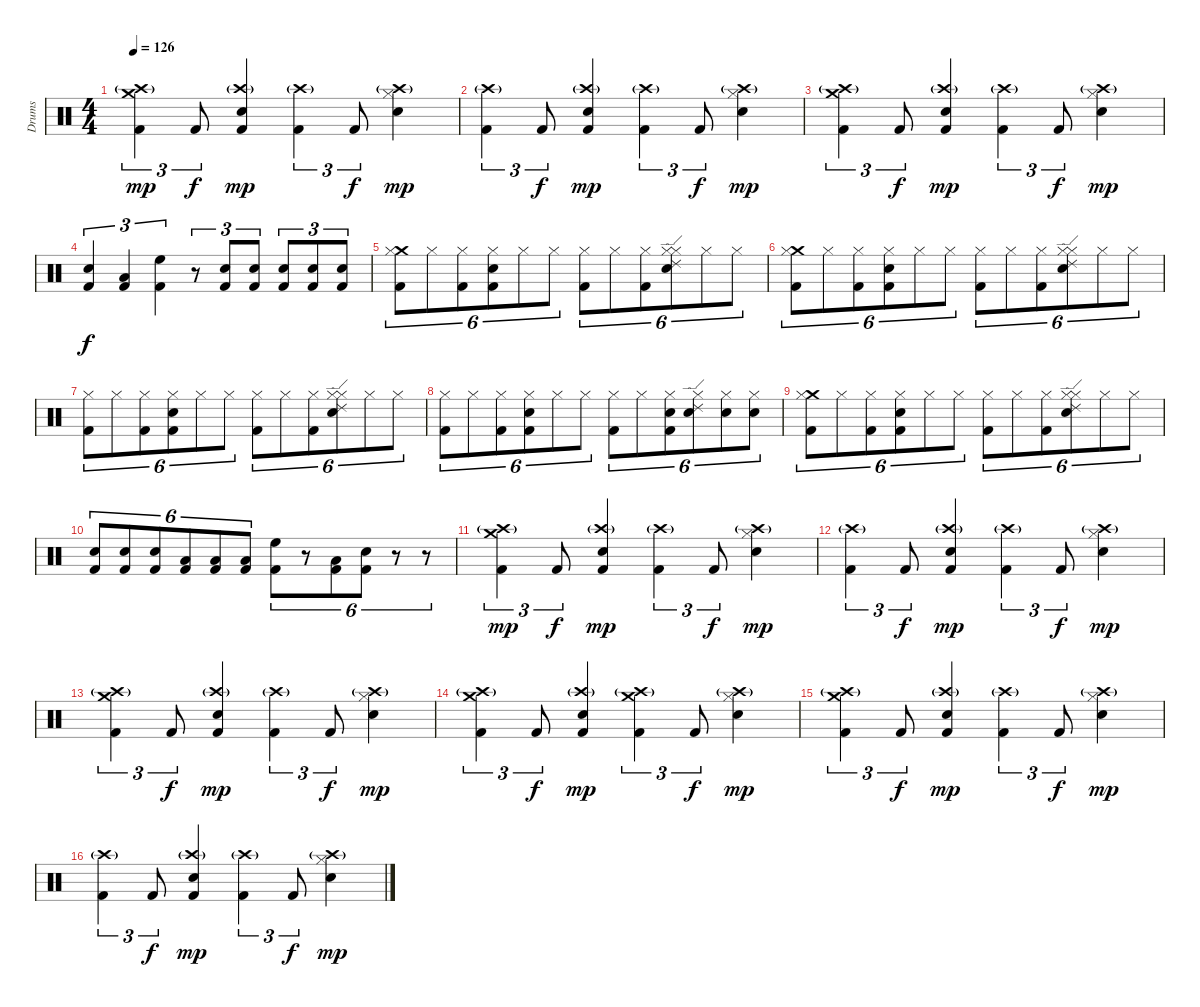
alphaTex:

\track ("Drums" "Drums") {instrument percussion}
\staff {score}
\articulation defaults
\ts (4 4)
\tempo 126
\clef neutral
\ks c
("Kick (hit) 2" "Crash medium (hit)" "Crash high (hit)"{g}).4{tu (3 2) dy mp volume 16} "Kick (hit) 2".8{tu (3 2) dy f} ("Kick (hit) 2" "Snare (hit) 2" "Crash high (hit)"{g}).4{dy mp} ("Kick (hit) 2" "Crash high (hit)"{g}).4{tu (3 2)} "Kick (hit) 2".8{tu (3 2) dy f} ("Hi-Hat (closed)" "Snare (hit) 2" "Crash high (hit)"{g}).4{dy mp} |
("Kick (hit) 2" "Crash high (hit)"{g}).4{tu (3 2)} "Kick (hit) 2".8{tu (3 2) dy f} ("Kick (hit) 2" "Snare (hit) 2" "Crash high (hit)"{g}).4{dy mp} ("Kick (hit) 2" "Crash high (hit)"{g}).4{tu (3 2)} "Kick (hit) 2".8{tu (3 2) dy f} ("Hi-Hat (closed)" "Snare (hit) 2" "Crash high (hit)"{g}).4{dy mp} |
("Kick (hit) 2" "Crash medium (hit)" "Crash high (hit)"{g}).4{tu (3 2)} "Kick (hit) 2".8{tu (3 2) dy f} ("Kick (hit) 2" "Snare (hit) 2" "Crash high (hit)"{g}).4{dy mp} ("Kick (hit) 2" "Crash high (hit)"{g}).4{tu (3 2)} "Kick (hit) 2".8{tu (3 2) dy f} ("Hi-Hat (closed)" "Snare (hit) 2" "Crash high (hit)"{g}).4{dy mp} |
("Kick (hit) 2" "Snare (hit) 2").4{tu (3 2) dy f} ("Kick (hit) 2" "Low Tom (hit)").4{tu (3 2)} ("Kick (hit) 2" "High Floor Tom (hit)").4{tu (3 2)} r.8{tu (3 2)} ("Kick (hit) 2" "Snare (hit) 2").8{tu (3 2)} ("Kick (hit) 2" "Snare (hit) 2").8{tu (3 2)} ("Kick (hit) 2" "Snare (hit) 2").8{tu (3 2)} ("Kick (hit) 2" "Snare (hit) 2").8{tu (3 2)} ("Kick (hit) 2" "Snare (hit) 2").8{tu (3 2)} |
("Kick (hit) 2" "Crash medium (hit)" "Hi-Hat (closed)").8{tu (6 4)} "Hi-Hat (closed)".8{tu (6 4)} ("Kick (hit) 2" "Hi-Hat (closed)").8{tu (6 4)} ("Kick (hit) 2" "Snare (hit) 2" "Hi-Hat (closed)").8{tu (6 4)} "Hi-Hat (closed)".8{tu (6 4)} "Hi-Hat (closed)".8{tu (6 4)} ("Kick (hit) 2" "Hi-Hat (closed)").8{tu (6 4)} "Hi-Hat (closed)".8{tu (6 4)} ("Kick (hit) 2" "Hi-Hat (closed)").8{tu (6 4)} ("Hi-Hat (closed)" "Snare (hit) 2" "Hi-Hat (closed)" "Ride (edge) 2").8{tu (6 4)} "Hi-Hat (closed)".8{tu (6 4)} "Hi-Hat (closed)".8{tu (6 4)} |
("Kick (hit) 2" "Crash medium (hit)" "Hi-Hat (closed)").8{tu (6 4)} "Hi-Hat (closed)".8{tu (6 4)} ("Kick (hit) 2" "Hi-Hat (closed)").8{tu (6 4)} ("Kick (hit) 2" "Snare (hit) 2" "Hi-Hat (closed)").8{tu (6 4)} "Hi-Hat (closed)".8{tu (6 4)} "Hi-Hat (closed)".8{tu (6 4)} ("Kick (hit) 2" "Hi-Hat (closed)").8{tu (6 4)} "Hi-Hat (closed)".8{tu (6 4)} ("Kick (hit) 2" "Hi-Hat (closed)").8{tu (6 4)} ("Hi-Hat (closed)" "Snare (hit) 2" "Hi-Hat (closed)" "Ride (edge) 2").8{tu (6 4)} "Hi-Hat (closed)".8{tu (6 4)} "Hi-Hat (closed)".8{tu (6 4)} |
("Kick (hit) 2" "Hi-Hat (closed)").8{tu (6 4)} "Hi-Hat (closed)".8{tu (6 4)} ("Kick (hit) 2" "Hi-Hat (closed)").8{tu (6 4)} ("Kick (hit) 2" "Snare (hit) 2" "Hi-Hat (closed)").8{tu (6 4)} "Hi-Hat (closed)".8{tu (6 4)} "Hi-Hat (closed)".8{tu (6 4)} ("Kick (hit) 2" "Hi-Hat (closed)").8{tu (6 4)} "Hi-Hat (closed)".8{tu (6 4)} ("Kick (hit) 2" "Hi-Hat (closed)").8{tu (6 4)} ("Hi-Hat (closed)" "Snare (hit) 2" "Hi-Hat (closed)" "Ride (edge) 2").8{tu (6 4)} "Hi-Hat (closed)".8{tu (6 4)} "Hi-Hat (closed)".8{tu (6 4)} |
("Kick (hit) 2" "Hi-Hat (closed)").8{tu (6 4)} "Hi-Hat (closed)".8{tu (6 4)} ("Kick (hit) 2" "Hi-Hat (closed)").8{tu (6 4)} ("Kick (hit) 2" "Snare (hit) 2" "Hi-Hat (closed)").8{tu (6 4)} "Hi-Hat (closed)".8{tu (6 4)} "Hi-Hat (closed)".8{tu (6 4)} ("Kick (hit) 2" "Hi-Hat (closed)").8{tu (6 4)} "Hi-Hat (closed)".8{tu (6 4)} ("Kick (hit) 2" "Snare (hit) 2" "Hi-Hat (closed)").8{tu (6 4)} ("Snare (hit) 2" "Hi-Hat (closed)" "Ride (edge) 2").8{tu (6 4)} ("Snare (hit) 2" "Hi-Hat (closed)").8{tu (6 4)} ("Snare (hit) 2" "Hi-Hat (closed)").8{tu (6 4)} |
("Kick (hit) 2" "Crash medium (hit)" "Hi-Hat (closed)").8{tu (6 4)} "Hi-Hat (closed)".8{tu (6 4)} ("Kick (hit) 2" "Hi-Hat (closed)").8{tu (6 4)} ("Kick (hit) 2" "Snare (hit) 2" "Hi-Hat (closed)").8{tu (6 4)} "Hi-Hat (closed)".8{tu (6 4)} "Hi-Hat (closed)".8{tu (6 4)} ("Kick (hit) 2" "Hi-Hat (closed)").8{tu (6 4)} "Hi-Hat (closed)".8{tu (6 4)} ("Kick (hit) 2" "Hi-Hat (closed)").8{tu (6 4)} ("Hi-Hat (closed)" "Snare (hit) 2" "Hi-Hat (closed)" "Ride (edge) 2").8{tu (6 4)} "Hi-Hat (closed)".8{tu (6 4)} "Hi-Hat (closed)".8{tu (6 4)} |
("Kick (hit) 2" "Snare (hit) 2").8{tu (6 4)} ("Kick (hit) 2" "Snare (hit) 2").8{tu (6 4)} ("Kick (hit) 2" "Snare (hit) 2").8{tu (6 4)} ("Kick (hit) 2" "Low Tom (hit)").8{tu (6 4)} ("Kick (hit) 2" "Low Tom (hit)").8{tu (6 4)} ("Kick (hit) 2" "Low Tom (hit)").8{tu (6 4)} ("Kick (hit) 2" "High Floor Tom (hit)").8{tu (6 4)} r.8{tu (6 4)} ("Kick (hit) 2" "Low Tom (hit)").8{tu (6 4)} ("Kick (hit) 2" "Snare (hit) 2").8{tu (6 4)} r.8{tu (6 4)} r.8{tu (6 4)} |
("Kick (hit) 2" "Crash medium (hit)" "Crash high (hit)"{g}).4{tu (3 2) dy mp volume 16} "Kick (hit) 2".8{tu (3 2) dy f} ("Kick (hit) 2" "Snare (hit) 2" "Crash high (hit)"{g}).4{dy mp} ("Kick (hit) 2" "Crash high (hit)"{g}).4{tu (3 2)} "Kick (hit) 2".8{tu (3 2) dy f} ("Hi-Hat (closed)" "Snare (hit) 2" "Crash high (hit)"{g}).4{dy mp} |
("Kick (hit) 2" "Crash high (hit)"{g}).4{tu (3 2)} "Kick (hit) 2".8{tu (3 2) dy f} ("Kick (hit) 2" "Snare (hit) 2" "Crash high (hit)"{g}).4{dy mp} ("Kick (hit) 2" "Crash high (hit)"{g}).4{tu (3 2)} "Kick (hit) 2".8{tu (3 2) dy f} ("Hi-Hat (closed)" "Snare (hit) 2" "Crash high (hit)"{g}).4{dy mp} |
("Kick (hit) 2" "Crash medium (hit)" "Crash high (hit)"{g}).4{tu (3 2)} "Kick (hit) 2".8{tu (3 2) dy f} ("Kick (hit) 2" "Snare (hit) 2" "Crash high (hit)"{g}).4{dy mp} ("Kick (hit) 2" "Crash high (hit)"{g}).4{tu (3 2)} "Kick (hit) 2".8{tu (3 2) dy f} ("Hi-Hat (closed)" "Snare (hit) 2" "Crash high (hit)"{g}).4{dy mp} |
("Kick (hit) 2" "Crash medium (hit)" "Crash high (hit)"{g}).4{tu (3 2)} "Kick (hit) 2".8{tu (3 2) dy f} ("Kick (hit) 2" "Snare (hit) 2" "Crash high (hit)"{g}).4{dy mp} ("Kick (hit) 2" "Crash medium (hit)" "Crash high (hit)"{g}).4{tu (3 2)} "Kick (hit) 2".8{tu (3 2) dy f} ("Hi-Hat (closed)" "Snare (hit) 2" "Crash high (hit)"{g}).4{dy mp} |
("Kick (hit) 2" "Crash medium (hit)" "Crash high (hit)"{g}).4{tu (3 2) volume 16} "Kick (hit) 2".8{tu (3 2) dy f} ("Kick (hit) 2" "Snare (hit) 2" "Crash high (hit)"{g}).4{dy mp} ("Kick (hit) 2" "Crash high (hit)"{g}).4{tu (3 2)} "Kick (hit) 2".8{tu (3 2) dy f} ("Hi-Hat (closed)" "Snare (hit) 2" "Crash high (hit)"{g}).4{dy mp} |
("Kick (hit) 2" "Crash high (hit)"{g}).4{tu (3 2)} "Kick (hit) 2".8{tu (3 2) dy f} ("Kick (hit) 2" "Snare (hit) 2" "Crash high (hit)"{g}).4{dy mp} ("Kick (hit) 2" "Crash high (hit)"{g}).4{tu (3 2)} "Kick (hit) 2".8{tu (3 2) dy f} ("Hi-Hat (closed)" "Snare (hit) 2" "Crash high (hit)"{g}).4{dy mp}
